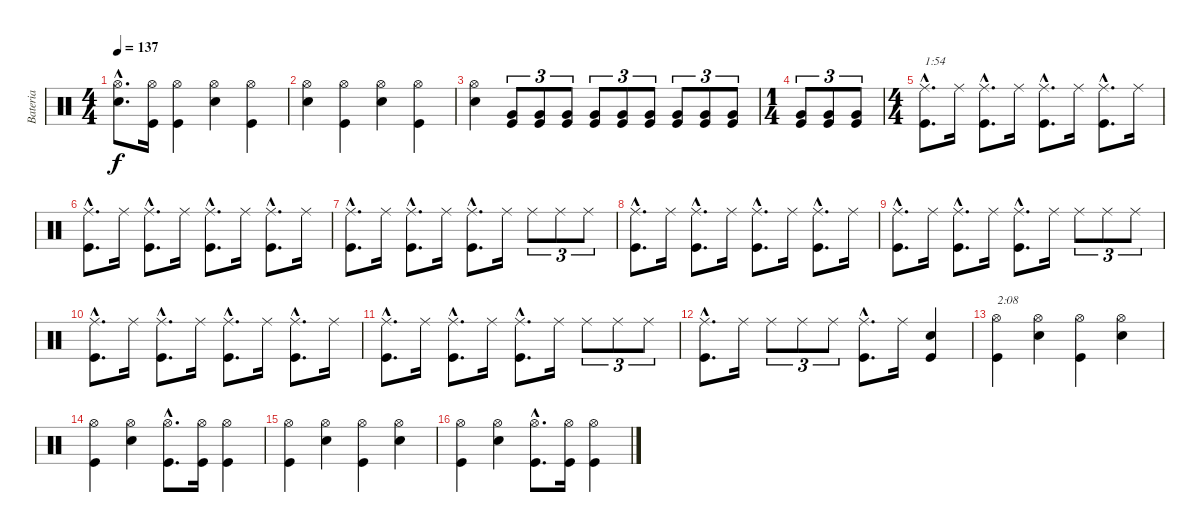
\track ("Bateria" "Bateria") {instrument percussion}
\staff {score}
\articulation defaults
\ts (4 4)
\tempo 137
\clef neutral
\ks c
("Snare (hit) 2"{hac} "Hi-Hat (open)"{hac}).8{d dy f} ("Kick (hit)" "Hi-Hat (open)").16 ("Kick (hit)" "Hi-Hat (open)").4 ("Snare (hit) 2" "Hi-Hat (open)").4 ("Kick (hit)" "Hi-Hat (open)").4 |
("Snare (hit) 2" "Hi-Hat (open)").4 ("Kick (hit)" "Hi-Hat (open)").4 ("Snare (hit) 2" "Hi-Hat (open)").4 ("Kick (hit)" "Hi-Hat (open)").4 |
("Snare (hit) 2" "Hi-Hat (open)").4 ("Kick (hit)" "Very Low Tom (hit)").8{tu (3 2)} ("Kick (hit)" "Very Low Tom (hit)").8{tu (3 2)} ("Kick (hit)" "Very Low Tom (hit)").8{tu (3 2)} ("Kick (hit)" "Very Low Tom (hit)").8{tu (3 2)} ("Kick (hit)" "Very Low Tom (hit)").8{tu (3 2)} ("Kick (hit)" "Very Low Tom (hit)").8{tu (3 2)} ("Kick (hit)" "Very Low Tom (hit)").8{tu (3 2)} ("Kick (hit)" "Very Low Tom (hit)").8{tu (3 2)} ("Kick (hit)" "Very Low Tom (hit)").8{tu (3 2)} |
\ts (1 4)
("Kick (hit)" "Very Low Tom (hit)").8{tu (3 2)} ("Kick (hit)" "Very Low Tom (hit)").8{tu (3 2)} ("Kick (hit)" "Very Low Tom (hit)").8{tu (3 2)} |
\ts (4 4)
("Kick (hit)"{hac} "Ride (middle)"{hac}).8{d txt "1:54"} "Ride (middle)".16 ("Kick (hit)"{hac} "Ride (middle)"{hac}).8{d} "Ride (middle)".16 ("Kick (hit)"{hac} "Ride (middle)"{hac}).8{d} "Ride (middle)".16 ("Kick (hit)"{hac} "Ride (middle)"{hac}).8{d} "Ride (middle)".16 |
("Kick (hit)"{hac} "Ride (middle)"{hac}).8{d} "Ride (middle)".16 ("Kick (hit)"{hac} "Ride (middle)"{hac}).8{d} "Ride (middle)".16 ("Kick (hit)"{hac} "Ride (middle)"{hac}).8{d} "Ride (middle)".16 ("Kick (hit)"{hac} "Ride (middle)"{hac}).8{d} "Ride (middle)".16 |
("Kick (hit)"{hac} "Ride (middle)"{hac}).8{d} "Ride (middle)".16 ("Kick (hit)"{hac} "Ride (middle)"{hac}).8{d} "Ride (middle)".16 ("Kick (hit)"{hac} "Ride (middle)"{hac}).8{d} "Ride (middle)".16 "Ride (middle)".8{tu (3 2)} "Ride (middle)".8{tu (3 2)} "Ride (middle)".8{tu (3 2)} |
("Kick (hit)"{hac} "Ride (middle)"{hac}).8{d} "Ride (middle)".16 ("Kick (hit)"{hac} "Ride (middle)"{hac}).8{d} "Ride (middle)".16 ("Kick (hit)"{hac} "Ride (middle)"{hac}).8{d} "Ride (middle)".16 ("Kick (hit)"{hac} "Ride (middle)"{hac}).8{d} "Ride (middle)".16 |
("Kick (hit)"{hac} "Ride (middle)"{hac}).8{d} "Ride (middle)".16 ("Kick (hit)"{hac} "Ride (middle)"{hac}).8{d} "Ride (middle)".16 ("Kick (hit)"{hac} "Ride (middle)"{hac}).8{d} "Ride (middle)".16 "Ride (middle)".8{tu (3 2)} "Ride (middle)".8{tu (3 2)} "Ride (middle)".8{tu (3 2)} |
("Kick (hit)"{hac} "Ride (middle)"{hac}).8{d} "Ride (middle)".16 ("Kick (hit)"{hac} "Ride (middle)"{hac}).8{d} "Ride (middle)".16 ("Kick (hit)"{hac} "Ride (middle)"{hac}).8{d} "Ride (middle)".16 ("Kick (hit)"{hac} "Ride (middle)"{hac}).8{d} "Ride (middle)".16 |
("Kick (hit)"{hac} "Ride (middle)"{hac}).8{d} "Ride (middle)".16 ("Kick (hit)"{hac} "Ride (middle)"{hac}).8{d} "Ride (middle)".16 ("Kick (hit)"{hac} "Ride (middle)"{hac}).8{d} "Ride (middle)".16 "Ride (middle)".8{tu (3 2)} "Ride (middle)".8{tu (3 2)} "Ride (middle)".8{tu (3 2)} |
("Kick (hit)"{hac} "Ride (middle)"{hac}).8{d} "Ride (middle)".16 "Ride (middle)".8{tu (3 2)} "Ride (middle)".8{tu (3 2)} "Ride (middle)".8{tu (3 2)} ("Kick (hit)"{hac} "Ride (middle)"{hac}).8{d} "Ride (middle)".16 ("Kick (hit)" "Snare (hit) 2").4 |
("Kick (hit)" "Hi-Hat (open)").4{txt "2:08"} ("Snare (hit) 2" "Hi-Hat (open)").4 ("Kick (hit)" "Hi-Hat (open)").4 ("Snare (hit) 2" "Hi-Hat (open)").4 |
("Kick (hit)" "Hi-Hat (open)").4 ("Snare (hit) 2" "Hi-Hat (open)").4 ("Kick (hit)"{hac} "Hi-Hat (open)"{hac}).8{d} ("Kick (hit)" "Hi-Hat (open)").16 ("Kick (hit)" "Hi-Hat (open)").4 |
("Kick (hit)" "Hi-Hat (open)").4 ("Snare (hit) 2" "Hi-Hat (open)").4 ("Kick (hit)" "Hi-Hat (open)").4 ("Snare (hit) 2" "Hi-Hat (open)").4 |
("Kick (hit)" "Hi-Hat (open)").4 ("Snare (hit) 2" "Hi-Hat (open)").4 ("Kick (hit)"{hac} "Hi-Hat (open)"{hac}).8{d} ("Kick (hit)" "Hi-Hat (open)").16 ("Kick (hit)" "Hi-Hat (open)").4
